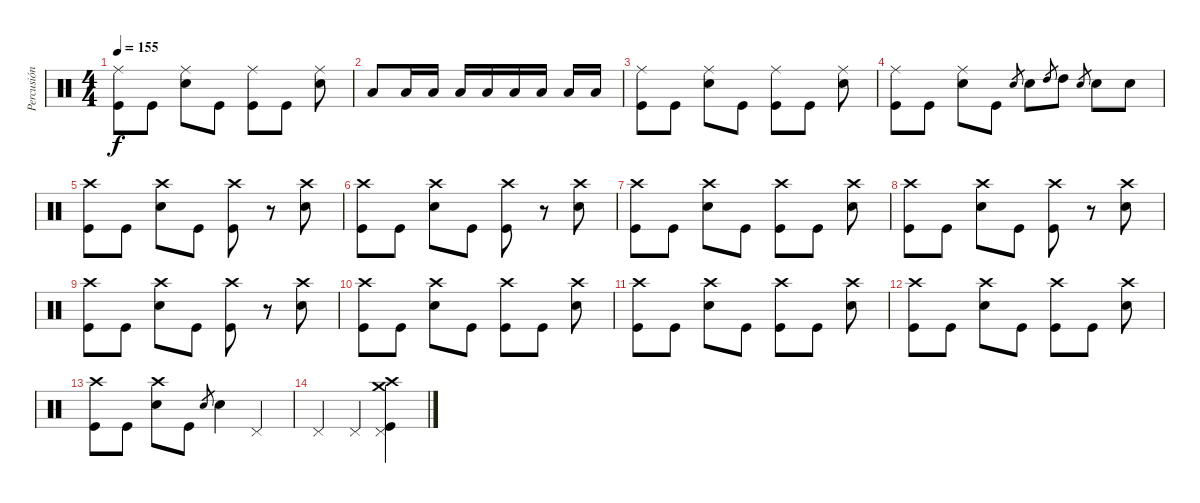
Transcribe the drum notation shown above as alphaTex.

\track ("Percusión" "Percusión") {instrument percussion}
\staff {score}
\articulation defaults
\ts (4 4)
\tempo 155
\clef neutral
\ks c
("Kick (hit)" "Ride (middle)").8{dy f} "Kick (hit)".8 ("Snare (hit) 2" "Ride (middle)").8 "Kick (hit)".8 ("Kick (hit)" "Ride (middle)").8 "Kick (hit)".8 ("Snare (hit) 2" "Ride (middle)").8 |
"Low Tom (hit)".8 "Low Tom (hit)".16 "Low Floor Tom (hit)".16 "Low Floor Tom (hit)".16 "Low Floor Tom (hit)".16 "Low Floor Tom (hit)".16 "Low Floor Tom (hit)".16 "Low Floor Tom (hit)".16 "Low Floor Tom (hit)".16 |
("Kick (hit)" "Ride (middle)").8 "Kick (hit)".8 ("Snare (hit) 2" "Ride (middle)").8 "Kick (hit)".8 ("Kick (hit)" "Ride (middle)").8 "Kick (hit)".8 ("Snare (hit) 2" "Ride (middle)").8 |
("Kick (hit)" "Ride (middle)").8 "Kick (hit)".8 ("Snare (hit) 2" "Ride (middle)").8 "Kick (hit)".8 "Snare (hit) 2".8{gr} "Snare (hit) 2".8 "High Tom (hit)".8{gr} "High Tom (hit)".8 "Snare (hit) 2".8{gr} "Snare (hit) 2".8 "Snare (hit) 2".8 |
("Kick (hit)" "Crash high (hit)").8 "Kick (hit)".8 ("Snare (hit) 2" "Crash high (hit)").8 "Kick (hit)".8 ("Kick (hit)" "Crash high (hit)").8 r.8 ("Snare (hit) 2" "Crash high (hit)").8 |
("Kick (hit)" "Crash high (hit)").8 "Kick (hit)".8 ("Snare (hit) 2" "Crash high (hit)").8 "Kick (hit)".8 ("Kick (hit)" "Crash high (hit)").8 r.8 ("Snare (hit) 2" "Crash high (hit)").8 |
("Kick (hit)" "Crash high (hit)").8 "Kick (hit)".8 ("Snare (hit) 2" "Crash high (hit)").8 "Kick (hit)".8 ("Kick (hit)" "Crash high (hit)").8 "Kick (hit)".8 ("Snare (hit) 2" "Crash high (hit)").8 |
("Kick (hit)" "Crash high (hit)").8 "Kick (hit)".8 ("Snare (hit) 2" "Crash high (hit)").8 "Kick (hit)".8 ("Kick (hit)" "Crash high (hit)").8 r.8 ("Snare (hit) 2" "Crash high (hit)").8 |
("Kick (hit)" "Crash high (hit)").8 "Kick (hit)".8 ("Snare (hit) 2" "Crash high (hit)").8 "Kick (hit)".8 ("Kick (hit)" "Crash high (hit)").8 r.8 ("Snare (hit) 2" "Crash high (hit)").8 |
("Kick (hit)" "Crash high (hit)").8 "Kick (hit)".8 ("Snare (hit) 2" "Crash high (hit)").8 "Kick (hit)".8 ("Kick (hit)" "Crash high (hit)").8 "Kick (hit)".8 ("Snare (hit) 2" "Crash high (hit)").8 |
("Kick (hit)" "Crash high (hit)").8 "Kick (hit)".8 ("Snare (hit) 2" "Crash high (hit)").8 "Kick (hit)".8 ("Kick (hit)" "Crash high (hit)").8 "Kick (hit)".8 ("Snare (hit) 2" "Crash high (hit)").8 |
("Kick (hit)" "Crash high (hit)").8 "Kick (hit)".8 ("Snare (hit) 2" "Crash high (hit)").8 "Kick (hit)".8 ("Kick (hit)" "Crash high (hit)").8 "Kick (hit)".8 ("Snare (hit) 2" "Crash high (hit)").8 |
("Kick (hit)" "Crash high (hit)").8 "Kick (hit)".8 ("Snare (hit) 2" "Crash high (hit)").8 "Kick (hit)".8 "Snare (hit) 2".8{gr} "Snare (hit) 2".4 "Pedal Hi-Hat (hit)".4 |
"Pedal Hi-Hat (hit)".4 "Pedal Hi-Hat (hit)".4 ("Pedal Hi-Hat (hit)" "Kick (hit)" "Crash high (hit)" "Crash medium (hit)").4
